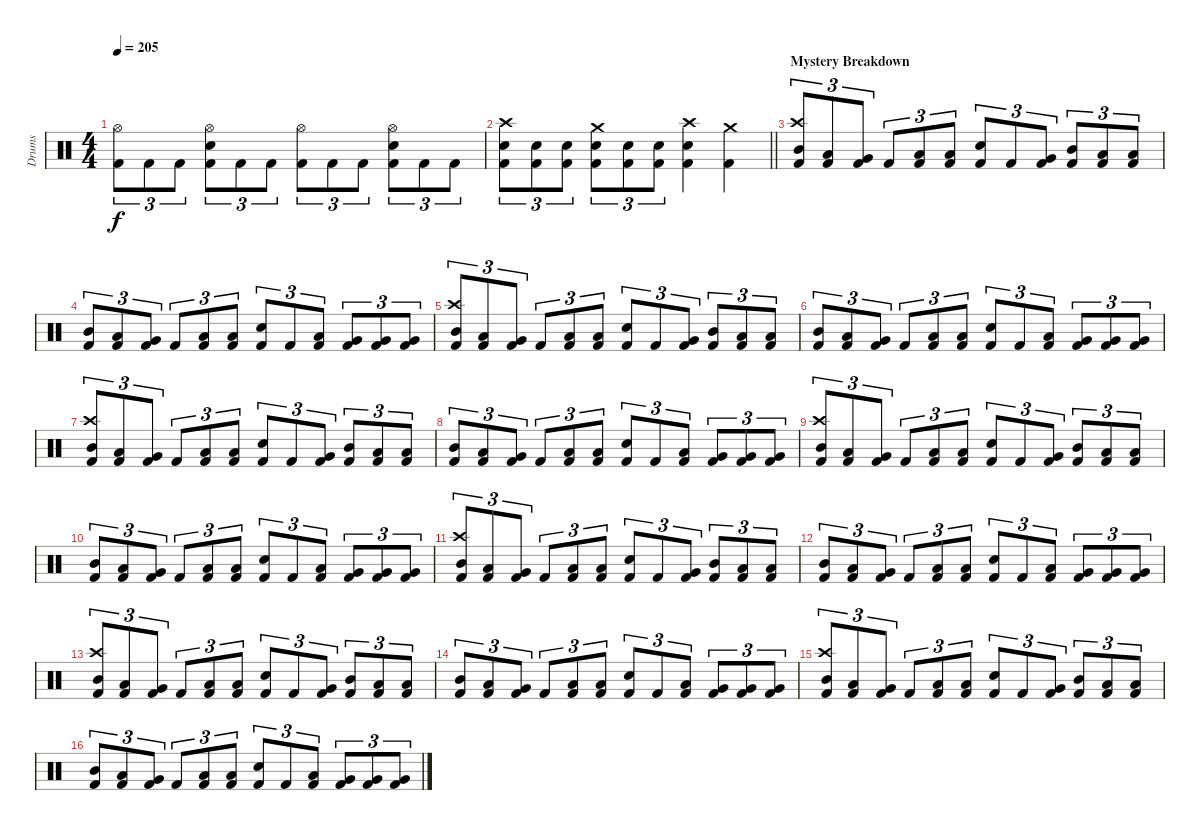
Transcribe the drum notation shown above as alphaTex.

\track ("Drums" "Drums") {instrument percussion}
\staff {score}
\articulation defaults
\ts (4 4)
\tempo 205
\clef neutral
\ks c
("Hi-Hat (open)" "Kick (hit) 2").8{tu (3 2) dy f} "Kick (hit) 2".8{tu (3 2)} "Kick (hit) 2".8{tu (3 2)} ("Hi-Hat (open)" "Snare (hit) 2" "Kick (hit) 2").8{tu (3 2)} "Kick (hit) 2".8{tu (3 2)} "Kick (hit) 2".8{tu (3 2)} ("Hi-Hat (open)" "Kick (hit) 2").8{tu (3 2)} "Kick (hit) 2".8{tu (3 2)} "Kick (hit) 2".8{tu (3 2)} ("Hi-Hat (open)" "Snare (hit) 2" "Kick (hit) 2").8{tu (3 2)} "Kick (hit) 2".8{tu (3 2)} "Kick (hit) 2".8{tu (3 2)} |
\barLineRight lightlight
("Crash high (hit)" "Snare (hit) 2" "Kick (hit) 2").8{tu (3 2)} ("Snare (hit) 2" "Kick (hit) 2").8{tu (3 2)} ("Snare (hit) 2" "Kick (hit) 2").8{tu (3 2)} ("Crash medium (hit)" "Snare (hit) 2" "Kick (hit) 2").8{tu (3 2)} ("Snare (hit) 2" "Kick (hit) 2").8{tu (3 2)} ("Snare (hit) 2" "Kick (hit) 2").8{tu (3 2)} ("Crash high (hit)" "Snare (hit) 2" "Kick (hit) 2").4 ("Crash medium (hit)" "Kick (hit) 2").4 |
\section ("" "Mystery Breakdown")
("Crash high (hit)" "Mid Tom (hit)" "Kick (hit) 2").8{tu (3 2)} ("Low Tom (hit)" "Kick (hit) 2").8{tu (3 2)} ("Very Low Tom (hit)" "Kick (hit) 2").8{tu (3 2)} "Kick (hit) 2".8{tu (3 2)} ("Low Floor Tom (hit)" "Kick (hit) 2").8{tu (3 2)} ("Low Floor Tom (hit)" "Kick (hit) 2").8{tu (3 2)} ("Snare (hit) 2" "Kick (hit) 2").8{tu (3 2)} "Kick (hit) 2".8{tu (3 2)} ("Very Low Tom (hit)" "Kick (hit) 2").8{tu (3 2)} ("Mid Tom (hit)" "Kick (hit) 2").8{tu (3 2)} ("Low Floor Tom (hit)" "Kick (hit) 2").8{tu (3 2)} ("Low Tom (hit)" "Kick (hit) 2").8{tu (3 2)} |
("Mid Tom (hit)" "Kick (hit) 2").8{tu (3 2)} ("Low Tom (hit)" "Kick (hit) 2").8{tu (3 2)} ("Very Low Tom (hit)" "Kick (hit) 2").8{tu (3 2)} "Kick (hit) 2".8{tu (3 2)} ("Low Floor Tom (hit)" "Kick (hit) 2").8{tu (3 2)} ("Low Floor Tom (hit)" "Kick (hit) 2").8{tu (3 2)} ("Snare (hit) 2" "Kick (hit) 2").8{tu (3 2)} "Kick (hit) 2".8{tu (3 2)} ("Low Floor Tom (hit)" "Kick (hit) 2").8{tu (3 2)} ("Very Low Tom (hit)" "Kick (hit) 2").8{tu (3 2)} ("Very Low Tom (hit)" "Kick (hit) 2").8{tu (3 2)} ("Very Low Tom (hit)" "Kick (hit) 2").8{tu (3 2)} |
("Crash high (hit)" "Mid Tom (hit)" "Kick (hit) 2").8{tu (3 2)} ("Low Tom (hit)" "Kick (hit) 2").8{tu (3 2)} ("Very Low Tom (hit)" "Kick (hit) 2").8{tu (3 2)} "Kick (hit) 2".8{tu (3 2)} ("Low Floor Tom (hit)" "Kick (hit) 2").8{tu (3 2)} ("Low Floor Tom (hit)" "Kick (hit) 2").8{tu (3 2)} ("Snare (hit) 2" "Kick (hit) 2").8{tu (3 2)} "Kick (hit) 2".8{tu (3 2)} ("Very Low Tom (hit)" "Kick (hit) 2").8{tu (3 2)} ("Mid Tom (hit)" "Kick (hit) 2").8{tu (3 2)} ("Low Floor Tom (hit)" "Kick (hit) 2").8{tu (3 2)} ("Low Tom (hit)" "Kick (hit) 2").8{tu (3 2)} |
("Mid Tom (hit)" "Kick (hit) 2").8{tu (3 2)} ("Low Tom (hit)" "Kick (hit) 2").8{tu (3 2)} ("Very Low Tom (hit)" "Kick (hit) 2").8{tu (3 2)} "Kick (hit) 2".8{tu (3 2)} ("Low Floor Tom (hit)" "Kick (hit) 2").8{tu (3 2)} ("Low Floor Tom (hit)" "Kick (hit) 2").8{tu (3 2)} ("Snare (hit) 2" "Kick (hit) 2").8{tu (3 2)} "Kick (hit) 2".8{tu (3 2)} ("Low Floor Tom (hit)" "Kick (hit) 2").8{tu (3 2)} ("Very Low Tom (hit)" "Kick (hit) 2").8{tu (3 2)} ("Very Low Tom (hit)" "Kick (hit) 2").8{tu (3 2)} ("Very Low Tom (hit)" "Kick (hit) 2").8{tu (3 2)} |
("Crash high (hit)" "Mid Tom (hit)" "Kick (hit) 2").8{tu (3 2)} ("Low Tom (hit)" "Kick (hit) 2").8{tu (3 2)} ("Very Low Tom (hit)" "Kick (hit) 2").8{tu (3 2)} "Kick (hit) 2".8{tu (3 2)} ("Low Floor Tom (hit)" "Kick (hit) 2").8{tu (3 2)} ("Low Floor Tom (hit)" "Kick (hit) 2").8{tu (3 2)} ("Snare (hit) 2" "Kick (hit) 2").8{tu (3 2)} "Kick (hit) 2".8{tu (3 2)} ("Very Low Tom (hit)" "Kick (hit) 2").8{tu (3 2)} ("Mid Tom (hit)" "Kick (hit) 2").8{tu (3 2)} ("Low Floor Tom (hit)" "Kick (hit) 2").8{tu (3 2)} ("Low Tom (hit)" "Kick (hit) 2").8{tu (3 2)} |
("Mid Tom (hit)" "Kick (hit) 2").8{tu (3 2)} ("Low Tom (hit)" "Kick (hit) 2").8{tu (3 2)} ("Very Low Tom (hit)" "Kick (hit) 2").8{tu (3 2)} "Kick (hit) 2".8{tu (3 2)} ("Low Floor Tom (hit)" "Kick (hit) 2").8{tu (3 2)} ("Low Floor Tom (hit)" "Kick (hit) 2").8{tu (3 2)} ("Snare (hit) 2" "Kick (hit) 2").8{tu (3 2)} "Kick (hit) 2".8{tu (3 2)} ("Low Floor Tom (hit)" "Kick (hit) 2").8{tu (3 2)} ("Very Low Tom (hit)" "Kick (hit) 2").8{tu (3 2)} ("Very Low Tom (hit)" "Kick (hit) 2").8{tu (3 2)} ("Very Low Tom (hit)" "Kick (hit) 2").8{tu (3 2)} |
("Crash high (hit)" "Mid Tom (hit)" "Kick (hit) 2").8{tu (3 2)} ("Low Tom (hit)" "Kick (hit) 2").8{tu (3 2)} ("Very Low Tom (hit)" "Kick (hit) 2").8{tu (3 2)} "Kick (hit) 2".8{tu (3 2)} ("Low Floor Tom (hit)" "Kick (hit) 2").8{tu (3 2)} ("Low Floor Tom (hit)" "Kick (hit) 2").8{tu (3 2)} ("Snare (hit) 2" "Kick (hit) 2").8{tu (3 2)} "Kick (hit) 2".8{tu (3 2)} ("Very Low Tom (hit)" "Kick (hit) 2").8{tu (3 2)} ("Mid Tom (hit)" "Kick (hit) 2").8{tu (3 2)} ("Low Floor Tom (hit)" "Kick (hit) 2").8{tu (3 2)} ("Low Tom (hit)" "Kick (hit) 2").8{tu (3 2)} |
("Mid Tom (hit)" "Kick (hit) 2").8{tu (3 2)} ("Low Tom (hit)" "Kick (hit) 2").8{tu (3 2)} ("Very Low Tom (hit)" "Kick (hit) 2").8{tu (3 2)} "Kick (hit) 2".8{tu (3 2)} ("Low Floor Tom (hit)" "Kick (hit) 2").8{tu (3 2)} ("Low Floor Tom (hit)" "Kick (hit) 2").8{tu (3 2)} ("Snare (hit) 2" "Kick (hit) 2").8{tu (3 2)} "Kick (hit) 2".8{tu (3 2)} ("Low Floor Tom (hit)" "Kick (hit) 2").8{tu (3 2)} ("Very Low Tom (hit)" "Kick (hit) 2").8{tu (3 2)} ("Very Low Tom (hit)" "Kick (hit) 2").8{tu (3 2)} ("Very Low Tom (hit)" "Kick (hit) 2").8{tu (3 2)} |
("Crash high (hit)" "Mid Tom (hit)" "Kick (hit) 2").8{tu (3 2)} ("Low Tom (hit)" "Kick (hit) 2").8{tu (3 2)} ("Very Low Tom (hit)" "Kick (hit) 2").8{tu (3 2)} "Kick (hit) 2".8{tu (3 2)} ("Low Floor Tom (hit)" "Kick (hit) 2").8{tu (3 2)} ("Low Floor Tom (hit)" "Kick (hit) 2").8{tu (3 2)} ("Snare (hit) 2" "Kick (hit) 2").8{tu (3 2)} "Kick (hit) 2".8{tu (3 2)} ("Very Low Tom (hit)" "Kick (hit) 2").8{tu (3 2)} ("Mid Tom (hit)" "Kick (hit) 2").8{tu (3 2)} ("Low Floor Tom (hit)" "Kick (hit) 2").8{tu (3 2)} ("Low Tom (hit)" "Kick (hit) 2").8{tu (3 2)} |
("Mid Tom (hit)" "Kick (hit) 2").8{tu (3 2)} ("Low Tom (hit)" "Kick (hit) 2").8{tu (3 2)} ("Very Low Tom (hit)" "Kick (hit) 2").8{tu (3 2)} "Kick (hit) 2".8{tu (3 2)} ("Low Floor Tom (hit)" "Kick (hit) 2").8{tu (3 2)} ("Low Floor Tom (hit)" "Kick (hit) 2").8{tu (3 2)} ("Snare (hit) 2" "Kick (hit) 2").8{tu (3 2)} "Kick (hit) 2".8{tu (3 2)} ("Low Floor Tom (hit)" "Kick (hit) 2").8{tu (3 2)} ("Very Low Tom (hit)" "Kick (hit) 2").8{tu (3 2)} ("Very Low Tom (hit)" "Kick (hit) 2").8{tu (3 2)} ("Very Low Tom (hit)" "Kick (hit) 2").8{tu (3 2)} |
("Crash high (hit)" "Mid Tom (hit)" "Kick (hit) 2").8{tu (3 2)} ("Low Tom (hit)" "Kick (hit) 2").8{tu (3 2)} ("Very Low Tom (hit)" "Kick (hit) 2").8{tu (3 2)} "Kick (hit) 2".8{tu (3 2)} ("Low Floor Tom (hit)" "Kick (hit) 2").8{tu (3 2)} ("Low Floor Tom (hit)" "Kick (hit) 2").8{tu (3 2)} ("Snare (hit) 2" "Kick (hit) 2").8{tu (3 2)} "Kick (hit) 2".8{tu (3 2)} ("Very Low Tom (hit)" "Kick (hit) 2").8{tu (3 2)} ("Mid Tom (hit)" "Kick (hit) 2").8{tu (3 2)} ("Low Floor Tom (hit)" "Kick (hit) 2").8{tu (3 2)} ("Low Tom (hit)" "Kick (hit) 2").8{tu (3 2)} |
("Mid Tom (hit)" "Kick (hit) 2").8{tu (3 2)} ("Low Tom (hit)" "Kick (hit) 2").8{tu (3 2)} ("Very Low Tom (hit)" "Kick (hit) 2").8{tu (3 2)} "Kick (hit) 2".8{tu (3 2)} ("Low Floor Tom (hit)" "Kick (hit) 2").8{tu (3 2)} ("Low Floor Tom (hit)" "Kick (hit) 2").8{tu (3 2)} ("Snare (hit) 2" "Kick (hit) 2").8{tu (3 2)} "Kick (hit) 2".8{tu (3 2)} ("Low Floor Tom (hit)" "Kick (hit) 2").8{tu (3 2)} ("Very Low Tom (hit)" "Kick (hit) 2").8{tu (3 2)} ("Very Low Tom (hit)" "Kick (hit) 2").8{tu (3 2)} ("Very Low Tom (hit)" "Kick (hit) 2").8{tu (3 2)} |
("Crash high (hit)" "Mid Tom (hit)" "Kick (hit) 2").8{tu (3 2)} ("Low Tom (hit)" "Kick (hit) 2").8{tu (3 2)} ("Very Low Tom (hit)" "Kick (hit) 2").8{tu (3 2)} "Kick (hit) 2".8{tu (3 2)} ("Low Floor Tom (hit)" "Kick (hit) 2").8{tu (3 2)} ("Low Floor Tom (hit)" "Kick (hit) 2").8{tu (3 2)} ("Snare (hit) 2" "Kick (hit) 2").8{tu (3 2)} "Kick (hit) 2".8{tu (3 2)} ("Very Low Tom (hit)" "Kick (hit) 2").8{tu (3 2)} ("Mid Tom (hit)" "Kick (hit) 2").8{tu (3 2)} ("Low Floor Tom (hit)" "Kick (hit) 2").8{tu (3 2)} ("Low Tom (hit)" "Kick (hit) 2").8{tu (3 2)} |
("Mid Tom (hit)" "Kick (hit) 2").8{tu (3 2)} ("Low Tom (hit)" "Kick (hit) 2").8{tu (3 2)} ("Very Low Tom (hit)" "Kick (hit) 2").8{tu (3 2)} "Kick (hit) 2".8{tu (3 2)} ("Low Floor Tom (hit)" "Kick (hit) 2").8{tu (3 2)} ("Low Floor Tom (hit)" "Kick (hit) 2").8{tu (3 2)} ("Snare (hit) 2" "Kick (hit) 2").8{tu (3 2)} "Kick (hit) 2".8{tu (3 2)} ("Low Floor Tom (hit)" "Kick (hit) 2").8{tu (3 2)} ("Very Low Tom (hit)" "Kick (hit) 2").8{tu (3 2)} ("Very Low Tom (hit)" "Kick (hit) 2").8{tu (3 2)} ("Very Low Tom (hit)" "Kick (hit) 2").8{tu (3 2)}
